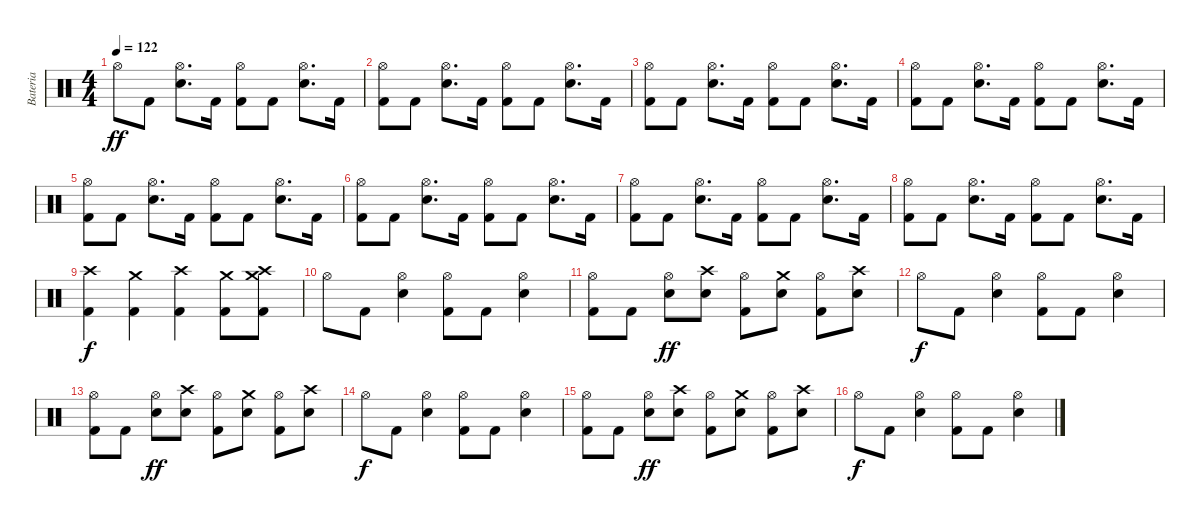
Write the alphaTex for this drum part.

\track ("Bateria" "Bateria") {instrument percussion}
\staff {score}
\articulation defaults
\ts (4 4)
\tempo 122
\clef neutral
\ks c "Hi-Hat (open)".8{dy ff} "Kick (hit) 2".8
("Hi-Hat (open)" "Electric Snare (hit)").8{d} "Kick (hit) 2".16 ("Hi-Hat (open)" "Kick (hit) 2").8 "Kick (hit) 2".8 ("Hi-Hat (open)" "Electric Snare (hit)").8{d} "Kick (hit) 2".16 |
("Hi-Hat (open)" "Kick (hit) 2").8 "Kick (hit) 2".8 ("Hi-Hat (open)" "Electric Snare (hit)").8{d} "Kick (hit) 2".16 ("Hi-Hat (open)" "Kick (hit) 2").8 "Kick (hit) 2".8 ("Hi-Hat (open)" "Electric Snare (hit)").8{d} "Kick (hit) 2".16 |
("Hi-Hat (open)" "Kick (hit) 2").8 "Kick (hit) 2".8 ("Hi-Hat (open)" "Electric Snare (hit)").8{d} "Kick (hit) 2".16 ("Hi-Hat (open)" "Kick (hit) 2").8 "Kick (hit) 2".8 ("Hi-Hat (open)" "Electric Snare (hit)").8{d} "Kick (hit) 2".16 |
("Hi-Hat (open)" "Kick (hit) 2").8 "Kick (hit) 2".8 ("Hi-Hat (open)" "Electric Snare (hit)").8{d} "Kick (hit) 2".16 ("Hi-Hat (open)" "Kick (hit) 2").8 "Kick (hit) 2".8 ("Hi-Hat (open)" "Electric Snare (hit)").8{d} "Kick (hit) 2".16 |
("Hi-Hat (open)" "Kick (hit) 2").8 "Kick (hit) 2".8 ("Hi-Hat (open)" "Electric Snare (hit)").8{d} "Kick (hit) 2".16 ("Hi-Hat (open)" "Kick (hit) 2").8 "Kick (hit) 2".8 ("Hi-Hat (open)" "Electric Snare (hit)").8{d} "Kick (hit) 2".16 |
("Hi-Hat (open)" "Kick (hit) 2").8 "Kick (hit) 2".8 ("Hi-Hat (open)" "Electric Snare (hit)").8{d} "Kick (hit) 2".16 ("Hi-Hat (open)" "Kick (hit) 2").8 "Kick (hit) 2".8 ("Hi-Hat (open)" "Electric Snare (hit)").8{d} "Kick (hit) 2".16 |
("Hi-Hat (open)" "Kick (hit) 2").8 "Kick (hit) 2".8 ("Hi-Hat (open)" "Electric Snare (hit)").8{d} "Kick (hit) 2".16 ("Hi-Hat (open)" "Kick (hit) 2").8 "Kick (hit) 2".8 ("Hi-Hat (open)" "Electric Snare (hit)").8{d} "Kick (hit) 2".16 |
("Hi-Hat (open)" "Kick (hit) 2").8 "Kick (hit) 2".8 ("Hi-Hat (open)" "Electric Snare (hit)").8{d} "Kick (hit) 2".16 ("Hi-Hat (open)" "Kick (hit) 2").8 "Kick (hit) 2".8 ("Hi-Hat (open)" "Electric Snare (hit)").8{d} "Kick (hit) 2".16 |
("Crash high (hit)" "Kick (hit) 2").4{dy f} ("Crash medium (hit)" "Kick (hit) 2").4 ("Crash high (hit)" "Kick (hit) 2").4 ("Crash medium (hit)" "Kick (hit) 2").8 ("Crash high (hit)" "Crash medium (hit)" "Kick (hit) 2").8 |
"Hi-Hat (open)".8 "Kick (hit) 2".8 ("Hi-Hat (open)" "Electric Snare (hit)").4 ("Hi-Hat (open)" "Kick (hit) 2").8 "Kick (hit) 2".8 ("Hi-Hat (open)" "Electric Snare (hit)").4 |
("Hi-Hat (open)" "Kick (hit) 2").8 "Kick (hit) 2".8 ("Hi-Hat (open)" "Electric Snare (hit)").8{dy ff} ("Crash high (hit)" "Electric Snare (hit)").8 ("Hi-Hat (open)" "Kick (hit) 2").8 ("Crash medium (hit)" "Electric Snare (hit)").8 ("Hi-Hat (open)" "Kick (hit) 2").8 ("Crash high (hit)" "Electric Snare (hit)").8 |
"Hi-Hat (open)".8{dy f} "Kick (hit) 2".8 ("Hi-Hat (open)" "Electric Snare (hit)").4 ("Hi-Hat (open)" "Kick (hit) 2").8 "Kick (hit) 2".8 ("Hi-Hat (open)" "Electric Snare (hit)").4 |
("Hi-Hat (open)" "Kick (hit) 2").8 "Kick (hit) 2".8 ("Hi-Hat (open)" "Electric Snare (hit)").8{dy ff} ("Crash high (hit)" "Electric Snare (hit)").8 ("Hi-Hat (open)" "Kick (hit) 2").8 ("Crash medium (hit)" "Electric Snare (hit)").8 ("Hi-Hat (open)" "Kick (hit) 2").8 ("Crash high (hit)" "Electric Snare (hit)").8 |
"Hi-Hat (open)".8{dy f} "Kick (hit) 2".8 ("Hi-Hat (open)" "Electric Snare (hit)").4 ("Hi-Hat (open)" "Kick (hit) 2").8 "Kick (hit) 2".8 ("Hi-Hat (open)" "Electric Snare (hit)").4 |
("Hi-Hat (open)" "Kick (hit) 2").8 "Kick (hit) 2".8 ("Hi-Hat (open)" "Electric Snare (hit)").8{dy ff} ("Crash high (hit)" "Electric Snare (hit)").8 ("Hi-Hat (open)" "Kick (hit) 2").8 ("Crash medium (hit)" "Electric Snare (hit)").8 ("Hi-Hat (open)" "Kick (hit) 2").8 ("Crash high (hit)" "Electric Snare (hit)").8 |
"Hi-Hat (open)".8{dy f} "Kick (hit) 2".8 ("Hi-Hat (open)" "Electric Snare (hit)").4 ("Hi-Hat (open)" "Kick (hit) 2").8 "Kick (hit) 2".8 ("Hi-Hat (open)" "Electric Snare (hit)").4
